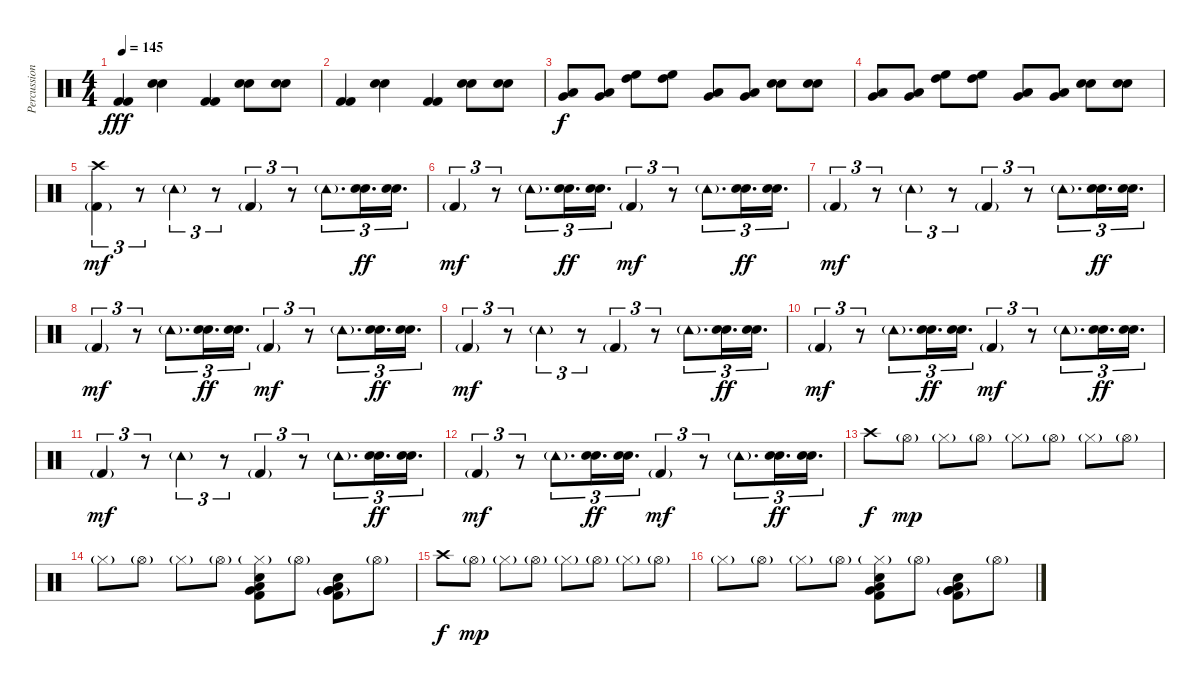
\track ("Percussion ( Keyboard )" "Percussion") {instrument percussion bank 4}
\staff {score}
\articulation defaults
\ts (4 4)
\tempo 145
\clef neutral
\ks c
("Kick (hit) 2" "Kick (hit) 2").4{dy fff} ("Electric Snare (hit)" "Hand Clap (hit)").4 ("Kick (hit) 2" "Kick (hit) 2").4 ("Electric Snare (hit)" "Hand Clap (hit)").8 ("Electric Snare (hit)" "Hand Clap (hit)").8 |
("Kick (hit) 2" "Kick (hit) 2").4 ("Electric Snare (hit)" "Hand Clap (hit)").4 ("Kick (hit) 2" "Kick (hit) 2").4 ("Electric Snare (hit)" "Hand Clap (hit)").8 ("Electric Snare (hit)" "Hand Clap (hit)").8 |
("Very Low Tom (hit)" "Low Tom (hit)").8{dy f} ("Very Low Tom (hit)" "Low Tom (hit)").8 ("High Floor Tom (hit)" "High Tom (hit)").8 ("High Floor Tom (hit)" "High Tom (hit)").8 ("Very Low Tom (hit)" "Low Tom (hit)").8 ("Very Low Tom (hit)" "Low Tom (hit)").8 ("Electric Snare (hit)" "Hand Clap (hit)").8 ("Electric Snare (hit)" "Hand Clap (hit)").8 |
("Very Low Tom (hit)" "Low Tom (hit)").8 ("Very Low Tom (hit)" "Low Tom (hit)").8 ("High Floor Tom (hit)" "High Tom (hit)").8 ("High Floor Tom (hit)" "High Tom (hit)").8 ("Very Low Tom (hit)" "Low Tom (hit)").8 ("Very Low Tom (hit)" "Low Tom (hit)").8 ("Electric Snare (hit)" "Hand Clap (hit)").8 ("Electric Snare (hit)" "Hand Clap (hit)").8 |
("Crash high (hit)" "Kick (hit) 2"{g}).4{tu (3 2) dy mf} r.8{tu (3 2)} "Tambourine (hit)"{g}.4{tu (3 2)} r.8{tu (3 2)} "Kick (hit) 2"{g}.4{tu (3 2)} r.8{tu (3 2)} "Tambourine (hit)"{g}.8{d tu (3 2)} ("Snare (hit) 2" "Electric Snare (hit)").16{d tu (3 2) dy ff} ("Snare (hit) 2" "Electric Snare (hit)").16{d tu (3 2)} |
"Kick (hit) 2"{g}.4{tu (3 2) dy mf} r.8{tu (3 2)} "Tambourine (hit)"{g}.8{d tu (3 2)} ("Snare (hit) 2" "Electric Snare (hit)").16{d tu (3 2) dy ff} ("Snare (hit) 2" "Electric Snare (hit)").16{d tu (3 2)} "Kick (hit) 2"{g}.4{tu (3 2) dy mf} r.8{tu (3 2)} "Tambourine (hit)"{g}.8{d tu (3 2)} ("Snare (hit) 2" "Electric Snare (hit)").16{d tu (3 2) dy ff} ("Snare (hit) 2" "Electric Snare (hit)").16{d tu (3 2)} |
"Kick (hit) 2"{g}.4{tu (3 2) dy mf} r.8{tu (3 2)} "Tambourine (hit)"{g}.4{tu (3 2)} r.8{tu (3 2)} "Kick (hit) 2"{g}.4{tu (3 2)} r.8{tu (3 2)} "Tambourine (hit)"{g}.8{d tu (3 2)} ("Snare (hit) 2" "Electric Snare (hit)").16{d tu (3 2) dy ff} ("Snare (hit) 2" "Electric Snare (hit)").16{d tu (3 2)} |
"Kick (hit) 2"{g}.4{tu (3 2) dy mf} r.8{tu (3 2)} "Tambourine (hit)"{g}.8{d tu (3 2)} ("Snare (hit) 2" "Electric Snare (hit)").16{d tu (3 2) dy ff} ("Snare (hit) 2" "Electric Snare (hit)").16{d tu (3 2)} "Kick (hit) 2"{g}.4{tu (3 2) dy mf} r.8{tu (3 2)} "Tambourine (hit)"{g}.8{d tu (3 2)} ("Snare (hit) 2" "Electric Snare (hit)").16{d tu (3 2) dy ff} ("Snare (hit) 2" "Electric Snare (hit)").16{d tu (3 2)} |
"Kick (hit) 2"{g}.4{tu (3 2) dy mf} r.8{tu (3 2)} "Tambourine (hit)"{g}.4{tu (3 2)} r.8{tu (3 2)} "Kick (hit) 2"{g}.4{tu (3 2)} r.8{tu (3 2)} "Tambourine (hit)"{g}.8{d tu (3 2)} ("Snare (hit) 2" "Electric Snare (hit)").16{d tu (3 2) dy ff} ("Snare (hit) 2" "Electric Snare (hit)").16{d tu (3 2)} |
"Kick (hit) 2"{g}.4{tu (3 2) dy mf} r.8{tu (3 2)} "Tambourine (hit)"{g}.8{d tu (3 2)} ("Snare (hit) 2" "Electric Snare (hit)").16{d tu (3 2) dy ff} ("Snare (hit) 2" "Electric Snare (hit)").16{d tu (3 2)} "Kick (hit) 2"{g}.4{tu (3 2) dy mf} r.8{tu (3 2)} "Tambourine (hit)"{g}.8{d tu (3 2)} ("Snare (hit) 2" "Electric Snare (hit)").16{d tu (3 2) dy ff} ("Snare (hit) 2" "Electric Snare (hit)").16{d tu (3 2)} |
"Kick (hit) 2"{g}.4{tu (3 2) dy mf} r.8{tu (3 2)} "Tambourine (hit)"{g}.4{tu (3 2)} r.8{tu (3 2)} "Kick (hit) 2"{g}.4{tu (3 2)} r.8{tu (3 2)} "Tambourine (hit)"{g}.8{d tu (3 2)} ("Snare (hit) 2" "Electric Snare (hit)").16{d tu (3 2) dy ff} ("Snare (hit) 2" "Electric Snare (hit)").16{d tu (3 2)} |
"Kick (hit) 2"{g}.4{tu (3 2) dy mf} r.8{tu (3 2)} "Tambourine (hit)"{g}.8{d tu (3 2)} ("Snare (hit) 2" "Electric Snare (hit)").16{d tu (3 2) dy ff} ("Snare (hit) 2" "Electric Snare (hit)").16{d tu (3 2)} "Kick (hit) 2"{g}.4{tu (3 2) dy mf} r.8{tu (3 2)} "Tambourine (hit)"{g}.8{d tu (3 2)} ("Snare (hit) 2" "Electric Snare (hit)").16{d tu (3 2) dy ff} ("Snare (hit) 2" "Electric Snare (hit)").16{d tu (3 2)} |
"Crash high (hit)".8{dy f} "Hi-Hat (open)"{g}.8{dy mp} "Hi-Hat (closed)"{g}.8 "Hi-Hat (open)"{g}.8 "Hi-Hat (closed)"{g}.8 "Hi-Hat (open)"{g}.8 "Hi-Hat (closed)"{g}.8 "Hi-Hat (open)"{g}.8 |
"Hi-Hat (closed)"{g}.8 "Hi-Hat (open)"{g}.8 "Hi-Hat (closed)"{g}.8 "Hi-Hat (open)"{g}.8 ("Kick (hit) 2" "Very Low Tom (hit)" "Hi-Hat (closed)"{g} "Electric Snare (hit)" "Low Floor Tom (hit)").8 "Hi-Hat (open)"{g}.8 ("Very Low Tom (hit)" "Kick (hit) 2" "Very Low Tom (hit)"{g} "Electric Snare (hit)" "Low Floor Tom (hit)").8 "Hi-Hat (open)"{g}.8 |
"Crash high (hit)".8{dy f} "Hi-Hat (open)"{g}.8{dy mp} "Hi-Hat (closed)"{g}.8 "Hi-Hat (open)"{g}.8 "Hi-Hat (closed)"{g}.8 "Hi-Hat (open)"{g}.8 "Hi-Hat (closed)"{g}.8 "Hi-Hat (open)"{g}.8 |
"Hi-Hat (closed)"{g}.8 "Hi-Hat (open)"{g}.8 "Hi-Hat (closed)"{g}.8 "Hi-Hat (open)"{g}.8 ("Kick (hit) 2" "Very Low Tom (hit)" "Hi-Hat (closed)"{g} "Electric Snare (hit)" "Low Floor Tom (hit)").8 "Hi-Hat (open)"{g}.8 ("Very Low Tom (hit)" "Kick (hit) 2" "Very Low Tom (hit)"{g} "Electric Snare (hit)" "Low Floor Tom (hit)").8 "Hi-Hat (open)"{g}.8
